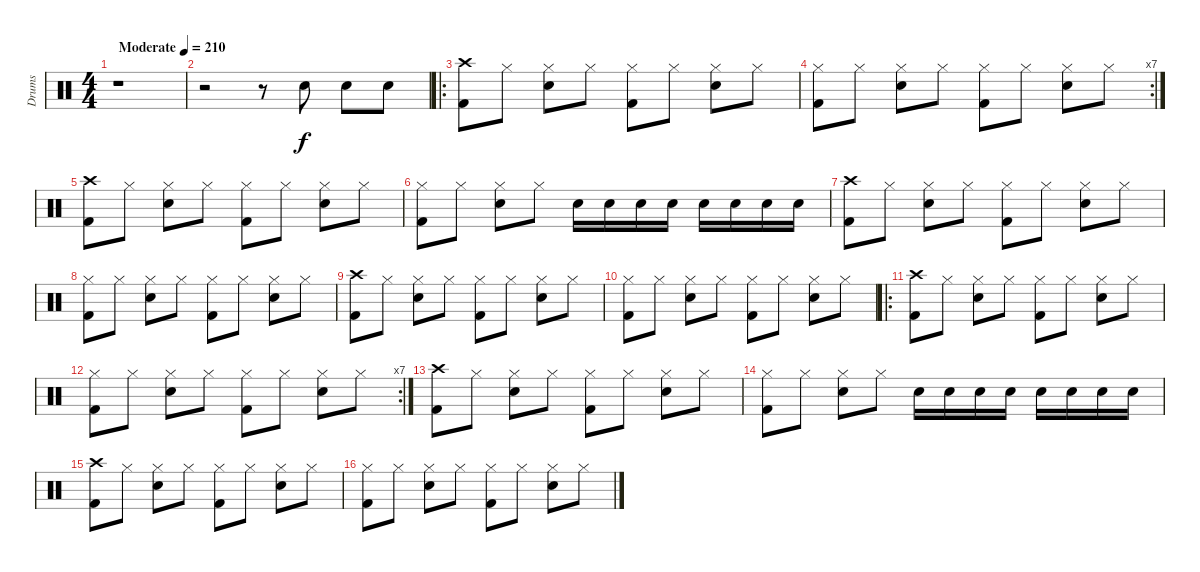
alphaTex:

\track ("Drums" "Drums") {instrument percussion}
\staff {score}
\articulation defaults
\ts (4 4)
\tempo (210 "Moderate")
\clef neutral
\ks c
r.1{dy f} |
r.2 r.8 "Snare (hit) 2".8 "Snare (hit) 2".8 "Snare (hit) 2".8 |
\ro
("Crash high (hit)" "Kick (hit) 2").8 "Hi-Hat (closed)".8 ("Hi-Hat (closed)" "Snare (hit) 2").8 "Hi-Hat (closed)".8 ("Hi-Hat (closed)" "Kick (hit) 2").8 "Hi-Hat (closed)".8 ("Hi-Hat (closed)" "Snare (hit) 2").8 "Hi-Hat (closed)".8 |
\rc 7
("Hi-Hat (closed)" "Kick (hit) 2").8 "Hi-Hat (closed)".8 ("Hi-Hat (closed)" "Snare (hit) 2").8 "Hi-Hat (closed)".8 ("Hi-Hat (closed)" "Kick (hit) 2").8 "Hi-Hat (closed)".8 ("Hi-Hat (closed)" "Snare (hit) 2").8 "Hi-Hat (closed)".8 |
("Crash high (hit)" "Kick (hit) 2").8 "Hi-Hat (closed)".8 ("Hi-Hat (closed)" "Snare (hit) 2").8 "Hi-Hat (closed)".8 ("Hi-Hat (closed)" "Kick (hit) 2").8 "Hi-Hat (closed)".8 ("Hi-Hat (closed)" "Snare (hit) 2").8 "Hi-Hat (closed)".8 |
("Hi-Hat (closed)" "Kick (hit) 2").8 "Hi-Hat (closed)".8 ("Hi-Hat (closed)" "Snare (hit) 2").8 "Hi-Hat (closed)".8 "Snare (hit) 2".16 "Snare (hit) 2".16 "Snare (hit) 2".16 "Snare (hit) 2".16 "Snare (hit) 2".16 "Snare (hit) 2".16 "Snare (hit) 2".16 "Snare (hit) 2".16 |
("Crash high (hit)" "Kick (hit) 2").8 "Hi-Hat (closed)".8 ("Hi-Hat (closed)" "Snare (hit) 2").8 "Hi-Hat (closed)".8 ("Hi-Hat (closed)" "Kick (hit) 2").8 "Hi-Hat (closed)".8 ("Hi-Hat (closed)" "Snare (hit) 2").8 "Hi-Hat (closed)".8 |
("Hi-Hat (closed)" "Kick (hit) 2").8 "Hi-Hat (closed)".8 ("Hi-Hat (closed)" "Snare (hit) 2").8 "Hi-Hat (closed)".8 ("Hi-Hat (closed)" "Kick (hit) 2").8 "Hi-Hat (closed)".8 ("Hi-Hat (closed)" "Snare (hit) 2").8 "Hi-Hat (closed)".8 |
("Crash high (hit)" "Kick (hit) 2").8 "Hi-Hat (closed)".8 ("Hi-Hat (closed)" "Snare (hit) 2").8 "Hi-Hat (closed)".8 ("Hi-Hat (closed)" "Kick (hit) 2").8 "Hi-Hat (closed)".8 ("Hi-Hat (closed)" "Snare (hit) 2").8 "Hi-Hat (closed)".8 |
("Hi-Hat (closed)" "Kick (hit) 2").8 "Hi-Hat (closed)".8 ("Hi-Hat (closed)" "Snare (hit) 2").8 "Hi-Hat (closed)".8 ("Hi-Hat (closed)" "Kick (hit) 2").8 "Hi-Hat (closed)".8 ("Hi-Hat (closed)" "Snare (hit) 2").8 "Hi-Hat (closed)".8 |
\ro
("Crash high (hit)" "Kick (hit) 2").8 "Hi-Hat (closed)".8 ("Hi-Hat (closed)" "Snare (hit) 2").8 "Hi-Hat (closed)".8 ("Hi-Hat (closed)" "Kick (hit) 2").8 "Hi-Hat (closed)".8 ("Hi-Hat (closed)" "Snare (hit) 2").8 "Hi-Hat (closed)".8 |
\rc 7
("Hi-Hat (closed)" "Kick (hit) 2").8 "Hi-Hat (closed)".8 ("Hi-Hat (closed)" "Snare (hit) 2").8 "Hi-Hat (closed)".8 ("Hi-Hat (closed)" "Kick (hit) 2").8 "Hi-Hat (closed)".8 ("Hi-Hat (closed)" "Snare (hit) 2").8 "Hi-Hat (closed)".8 |
("Crash high (hit)" "Kick (hit) 2").8 "Hi-Hat (closed)".8 ("Hi-Hat (closed)" "Snare (hit) 2").8 "Hi-Hat (closed)".8 ("Hi-Hat (closed)" "Kick (hit) 2").8 "Hi-Hat (closed)".8 ("Hi-Hat (closed)" "Snare (hit) 2").8 "Hi-Hat (closed)".8 |
("Hi-Hat (closed)" "Kick (hit) 2").8 "Hi-Hat (closed)".8 ("Hi-Hat (closed)" "Snare (hit) 2").8 "Hi-Hat (closed)".8 "Snare (hit) 2".16 "Snare (hit) 2".16 "Snare (hit) 2".16 "Snare (hit) 2".16 "Snare (hit) 2".16 "Snare (hit) 2".16 "Snare (hit) 2".16 "Snare (hit) 2".16 |
("Crash high (hit)" "Kick (hit) 2").8 "Hi-Hat (closed)".8 ("Hi-Hat (closed)" "Snare (hit) 2").8 "Hi-Hat (closed)".8 ("Hi-Hat (closed)" "Kick (hit) 2").8 "Hi-Hat (closed)".8 ("Hi-Hat (closed)" "Snare (hit) 2").8 "Hi-Hat (closed)".8 |
("Hi-Hat (closed)" "Kick (hit) 2").8 "Hi-Hat (closed)".8 ("Hi-Hat (closed)" "Snare (hit) 2").8 "Hi-Hat (closed)".8 ("Hi-Hat (closed)" "Kick (hit) 2").8 "Hi-Hat (closed)".8 ("Hi-Hat (closed)" "Snare (hit) 2").8 "Hi-Hat (closed)".8
